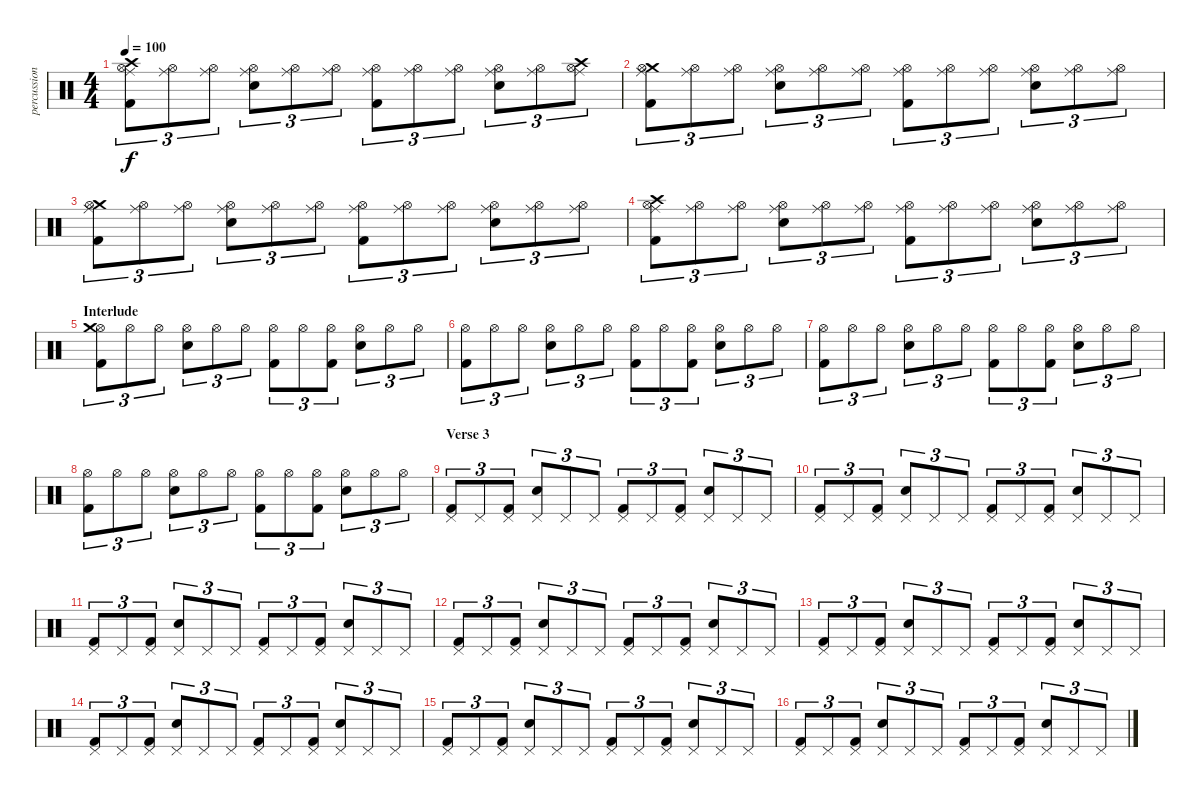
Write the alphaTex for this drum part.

\track ("percussion - vom" "percussion") {instrument percussion}
\staff {score}
\articulation defaults
\ts (4 4)
\tempo 100
\clef neutral
\ks c
("Ride (middle)" "Crash high (hit)" "Hi-Hat (open)" "Kick (hit) 2").8{tu (3 2) dy f} ("Ride (middle)" "Hi-Hat (open)").8{tu (3 2)} ("Ride (middle)" "Hi-Hat (open)").8{tu (3 2)} ("Ride (middle)" "Hi-Hat (open)" "Snare (hit) 2").8{tu (3 2)} ("Ride (middle)" "Hi-Hat (open)").8{tu (3 2)} ("Ride (middle)" "Hi-Hat (open)").8{tu (3 2)} ("Ride (middle)" "Hi-Hat (open)" "Kick (hit) 2").8{tu (3 2)} ("Ride (middle)" "Hi-Hat (open)").8{tu (3 2)} ("Ride (middle)" "Hi-Hat (open)").8{tu (3 2)} ("Ride (middle)" "Hi-Hat (open)" "Snare (hit) 2").8{tu (3 2)} ("Ride (middle)" "Hi-Hat (open)").8{tu (3 2)} ("Ride (middle)" "Crash high (hit)" "Hi-Hat (open)").8{tu (3 2)} |
("Ride (middle)" "Crash medium (hit)" "Hi-Hat (open)" "Kick (hit) 2").8{tu (3 2)} ("Ride (middle)" "Hi-Hat (open)").8{tu (3 2)} ("Ride (middle)" "Hi-Hat (open)").8{tu (3 2)} ("Ride (middle)" "Hi-Hat (open)" "Snare (hit) 2").8{tu (3 2)} ("Ride (middle)" "Hi-Hat (open)").8{tu (3 2)} ("Ride (middle)" "Hi-Hat (open)").8{tu (3 2)} ("Ride (middle)" "Hi-Hat (open)" "Kick (hit) 2").8{tu (3 2)} ("Ride (middle)" "Hi-Hat (open)").8{tu (3 2)} ("Ride (middle)" "Hi-Hat (open)").8{tu (3 2)} ("Ride (middle)" "Hi-Hat (open)" "Snare (hit) 2").8{tu (3 2)} ("Ride (middle)" "Hi-Hat (open)").8{tu (3 2)} ("Ride (middle)" "Hi-Hat (open)").8{tu (3 2)} |
("Ride (middle)" "Crash medium (hit)" "Hi-Hat (open)" "Kick (hit) 2").8{tu (3 2)} ("Ride (middle)" "Hi-Hat (open)").8{tu (3 2)} ("Ride (middle)" "Hi-Hat (open)").8{tu (3 2)} ("Ride (middle)" "Hi-Hat (open)" "Snare (hit) 2").8{tu (3 2)} ("Ride (middle)" "Hi-Hat (open)").8{tu (3 2)} ("Ride (middle)" "Hi-Hat (open)").8{tu (3 2)} ("Ride (middle)" "Hi-Hat (open)" "Kick (hit) 2").8{tu (3 2)} ("Ride (middle)" "Hi-Hat (open)").8{tu (3 2)} ("Ride (middle)" "Hi-Hat (open)").8{tu (3 2)} ("Ride (middle)" "Hi-Hat (open)" "Snare (hit) 2").8{tu (3 2)} ("Ride (middle)" "Hi-Hat (open)").8{tu (3 2)} ("Ride (middle)" "Hi-Hat (open)").8{tu (3 2)} |
("Ride (middle)" "Crash high (hit)" "Hi-Hat (open)" "Kick (hit) 2").8{tu (3 2)} ("Ride (middle)" "Hi-Hat (open)").8{tu (3 2)} ("Ride (middle)" "Hi-Hat (open)").8{tu (3 2)} ("Ride (middle)" "Hi-Hat (open)" "Snare (hit) 2").8{tu (3 2)} ("Ride (middle)" "Hi-Hat (open)").8{tu (3 2)} ("Ride (middle)" "Hi-Hat (open)").8{tu (3 2)} ("Ride (middle)" "Hi-Hat (open)" "Kick (hit) 2").8{tu (3 2)} ("Ride (middle)" "Hi-Hat (open)").8{tu (3 2)} ("Ride (middle)" "Hi-Hat (open)").8{tu (3 2)} ("Ride (middle)" "Hi-Hat (open)" "Snare (hit) 2").8{tu (3 2)} ("Ride (middle)" "Hi-Hat (open)").8{tu (3 2)} ("Ride (middle)" "Hi-Hat (open)").8{tu (3 2)} |
\section ("" "Interlude")
("Hi-Hat (open)" "Crash medium (hit)" "Kick (hit) 2").8{tu (3 2)} "Hi-Hat (open)".8{tu (3 2)} "Hi-Hat (open)".8{tu (3 2)} ("Hi-Hat (open)" "Snare (hit) 2").8{tu (3 2)} "Hi-Hat (open)".8{tu (3 2)} "Hi-Hat (open)".8{tu (3 2)} ("Hi-Hat (open)" "Kick (hit) 2").8{tu (3 2)} "Hi-Hat (open)".8{tu (3 2)} ("Hi-Hat (open)" "Kick (hit) 2").8{tu (3 2)} ("Hi-Hat (open)" "Snare (hit) 2").8{tu (3 2)} "Hi-Hat (open)".8{tu (3 2)} "Hi-Hat (open)".8{tu (3 2)} |
("Hi-Hat (open)" "Kick (hit) 2").8{tu (3 2)} "Hi-Hat (open)".8{tu (3 2)} "Hi-Hat (open)".8{tu (3 2)} ("Hi-Hat (open)" "Snare (hit) 2").8{tu (3 2)} "Hi-Hat (open)".8{tu (3 2)} "Hi-Hat (open)".8{tu (3 2)} ("Hi-Hat (open)" "Kick (hit) 2").8{tu (3 2)} "Hi-Hat (open)".8{tu (3 2)} ("Hi-Hat (open)" "Kick (hit) 2").8{tu (3 2)} ("Hi-Hat (open)" "Snare (hit) 2").8{tu (3 2)} "Hi-Hat (open)".8{tu (3 2)} "Hi-Hat (open)".8{tu (3 2)} |
("Hi-Hat (open)" "Kick (hit) 2").8{tu (3 2)} "Hi-Hat (open)".8{tu (3 2)} "Hi-Hat (open)".8{tu (3 2)} ("Hi-Hat (open)" "Snare (hit) 2").8{tu (3 2)} "Hi-Hat (open)".8{tu (3 2)} "Hi-Hat (open)".8{tu (3 2)} ("Hi-Hat (open)" "Kick (hit) 2").8{tu (3 2)} "Hi-Hat (open)".8{tu (3 2)} ("Hi-Hat (open)" "Kick (hit) 2").8{tu (3 2)} ("Hi-Hat (open)" "Snare (hit) 2").8{tu (3 2)} "Hi-Hat (open)".8{tu (3 2)} "Hi-Hat (open)".8{tu (3 2)} |
("Hi-Hat (open)" "Kick (hit) 2").8{tu (3 2)} "Hi-Hat (open)".8{tu (3 2)} "Hi-Hat (open)".8{tu (3 2)} ("Hi-Hat (open)" "Snare (hit) 2").8{tu (3 2)} "Hi-Hat (open)".8{tu (3 2)} "Hi-Hat (open)".8{tu (3 2)} ("Hi-Hat (open)" "Kick (hit) 2").8{tu (3 2)} "Hi-Hat (open)".8{tu (3 2)} ("Hi-Hat (open)" "Kick (hit) 2").8{tu (3 2)} ("Hi-Hat (open)" "Snare (hit) 2").8{tu (3 2)} "Hi-Hat (open)".8{tu (3 2)} "Hi-Hat (open)".8{tu (3 2)} |
\section ("" "Verse 3")
("Pedal Hi-Hat (hit)" "Kick (hit) 2").8{tu (3 2)} "Pedal Hi-Hat (hit)".8{tu (3 2)} ("Pedal Hi-Hat (hit)" "Kick (hit) 2").8{tu (3 2)} ("Pedal Hi-Hat (hit)" "Snare (hit) 2").8{tu (3 2)} "Pedal Hi-Hat (hit)".8{tu (3 2)} "Pedal Hi-Hat (hit)".8{tu (3 2)} ("Pedal Hi-Hat (hit)" "Kick (hit) 2").8{tu (3 2)} "Pedal Hi-Hat (hit)".8{tu (3 2)} ("Pedal Hi-Hat (hit)" "Kick (hit) 2").8{tu (3 2)} ("Pedal Hi-Hat (hit)" "Snare (hit) 2").8{tu (3 2)} "Pedal Hi-Hat (hit)".8{tu (3 2)} "Pedal Hi-Hat (hit)".8{tu (3 2)} |
("Pedal Hi-Hat (hit)" "Kick (hit) 2").8{tu (3 2)} "Pedal Hi-Hat (hit)".8{tu (3 2)} ("Pedal Hi-Hat (hit)" "Kick (hit) 2").8{tu (3 2)} ("Pedal Hi-Hat (hit)" "Snare (hit) 2").8{tu (3 2)} "Pedal Hi-Hat (hit)".8{tu (3 2)} "Pedal Hi-Hat (hit)".8{tu (3 2)} ("Pedal Hi-Hat (hit)" "Kick (hit) 2").8{tu (3 2)} "Pedal Hi-Hat (hit)".8{tu (3 2)} ("Pedal Hi-Hat (hit)" "Kick (hit) 2").8{tu (3 2)} ("Pedal Hi-Hat (hit)" "Snare (hit) 2").8{tu (3 2)} "Pedal Hi-Hat (hit)".8{tu (3 2)} "Pedal Hi-Hat (hit)".8{tu (3 2)} |
("Pedal Hi-Hat (hit)" "Kick (hit) 2").8{tu (3 2)} "Pedal Hi-Hat (hit)".8{tu (3 2)} ("Pedal Hi-Hat (hit)" "Kick (hit) 2").8{tu (3 2)} ("Pedal Hi-Hat (hit)" "Snare (hit) 2").8{tu (3 2)} "Pedal Hi-Hat (hit)".8{tu (3 2)} "Pedal Hi-Hat (hit)".8{tu (3 2)} ("Pedal Hi-Hat (hit)" "Kick (hit) 2").8{tu (3 2)} "Pedal Hi-Hat (hit)".8{tu (3 2)} ("Pedal Hi-Hat (hit)" "Kick (hit) 2").8{tu (3 2)} ("Pedal Hi-Hat (hit)" "Snare (hit) 2").8{tu (3 2)} "Pedal Hi-Hat (hit)".8{tu (3 2)} "Pedal Hi-Hat (hit)".8{tu (3 2)} |
("Pedal Hi-Hat (hit)" "Kick (hit) 2").8{tu (3 2)} "Pedal Hi-Hat (hit)".8{tu (3 2)} ("Pedal Hi-Hat (hit)" "Kick (hit) 2").8{tu (3 2)} ("Pedal Hi-Hat (hit)" "Snare (hit) 2").8{tu (3 2)} "Pedal Hi-Hat (hit)".8{tu (3 2)} "Pedal Hi-Hat (hit)".8{tu (3 2)} ("Pedal Hi-Hat (hit)" "Kick (hit) 2").8{tu (3 2)} "Pedal Hi-Hat (hit)".8{tu (3 2)} ("Pedal Hi-Hat (hit)" "Kick (hit) 2").8{tu (3 2)} ("Pedal Hi-Hat (hit)" "Snare (hit) 2").8{tu (3 2)} "Pedal Hi-Hat (hit)".8{tu (3 2)} "Pedal Hi-Hat (hit)".8{tu (3 2)} |
("Pedal Hi-Hat (hit)" "Kick (hit) 2").8{tu (3 2)} "Pedal Hi-Hat (hit)".8{tu (3 2)} ("Pedal Hi-Hat (hit)" "Kick (hit) 2").8{tu (3 2)} ("Pedal Hi-Hat (hit)" "Snare (hit) 2").8{tu (3 2)} "Pedal Hi-Hat (hit)".8{tu (3 2)} "Pedal Hi-Hat (hit)".8{tu (3 2)} ("Pedal Hi-Hat (hit)" "Kick (hit) 2").8{tu (3 2)} "Pedal Hi-Hat (hit)".8{tu (3 2)} ("Pedal Hi-Hat (hit)" "Kick (hit) 2").8{tu (3 2)} ("Pedal Hi-Hat (hit)" "Snare (hit) 2").8{tu (3 2)} "Pedal Hi-Hat (hit)".8{tu (3 2)} "Pedal Hi-Hat (hit)".8{tu (3 2)} |
("Pedal Hi-Hat (hit)" "Kick (hit) 2").8{tu (3 2)} "Pedal Hi-Hat (hit)".8{tu (3 2)} ("Pedal Hi-Hat (hit)" "Kick (hit) 2").8{tu (3 2)} ("Pedal Hi-Hat (hit)" "Snare (hit) 2").8{tu (3 2)} "Pedal Hi-Hat (hit)".8{tu (3 2)} "Pedal Hi-Hat (hit)".8{tu (3 2)} ("Pedal Hi-Hat (hit)" "Kick (hit) 2").8{tu (3 2)} "Pedal Hi-Hat (hit)".8{tu (3 2)} ("Pedal Hi-Hat (hit)" "Kick (hit) 2").8{tu (3 2)} ("Pedal Hi-Hat (hit)" "Snare (hit) 2").8{tu (3 2)} "Pedal Hi-Hat (hit)".8{tu (3 2)} "Pedal Hi-Hat (hit)".8{tu (3 2)} |
("Pedal Hi-Hat (hit)" "Kick (hit) 2").8{tu (3 2)} "Pedal Hi-Hat (hit)".8{tu (3 2)} ("Pedal Hi-Hat (hit)" "Kick (hit) 2").8{tu (3 2)} ("Pedal Hi-Hat (hit)" "Snare (hit) 2").8{tu (3 2)} "Pedal Hi-Hat (hit)".8{tu (3 2)} "Pedal Hi-Hat (hit)".8{tu (3 2)} ("Pedal Hi-Hat (hit)" "Kick (hit) 2").8{tu (3 2)} "Pedal Hi-Hat (hit)".8{tu (3 2)} ("Pedal Hi-Hat (hit)" "Kick (hit) 2").8{tu (3 2)} ("Pedal Hi-Hat (hit)" "Snare (hit) 2").8{tu (3 2)} "Pedal Hi-Hat (hit)".8{tu (3 2)} "Pedal Hi-Hat (hit)".8{tu (3 2)} |
("Pedal Hi-Hat (hit)" "Kick (hit) 2").8{tu (3 2)} "Pedal Hi-Hat (hit)".8{tu (3 2)} ("Pedal Hi-Hat (hit)" "Kick (hit) 2").8{tu (3 2)} ("Pedal Hi-Hat (hit)" "Snare (hit) 2").8{tu (3 2)} "Pedal Hi-Hat (hit)".8{tu (3 2)} "Pedal Hi-Hat (hit)".8{tu (3 2)} ("Pedal Hi-Hat (hit)" "Kick (hit) 2").8{tu (3 2)} "Pedal Hi-Hat (hit)".8{tu (3 2)} ("Pedal Hi-Hat (hit)" "Kick (hit) 2").8{tu (3 2)} ("Pedal Hi-Hat (hit)" "Snare (hit) 2").8{tu (3 2)} "Pedal Hi-Hat (hit)".8{tu (3 2)} "Pedal Hi-Hat (hit)".8{tu (3 2)}
